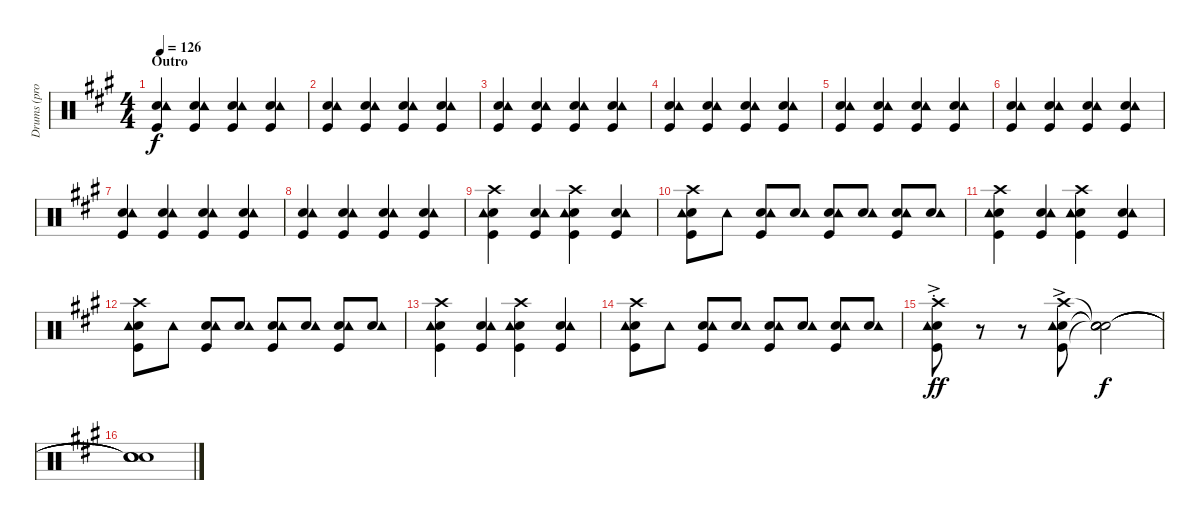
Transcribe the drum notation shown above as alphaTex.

\track ("Drums (prov.)" "Drums (pro") {instrument percussion}
\staff {score}
\articulation defaults
\ts (4 4)
\section ("" "Outro")
\tempo 126
\clef neutral
\ks a
("Snare (hit) 2" "Tambourine (hit)" "Kick (hit)").4{dy f} ("Snare (hit) 2" "Tambourine (hit)" "Kick (hit)").4 ("Snare (hit) 2" "Tambourine (hit)" "Kick (hit)").4 ("Snare (hit) 2" "Tambourine (hit)" "Kick (hit)").4 |
("Snare (hit) 2" "Tambourine (hit)" "Kick (hit)").4 ("Snare (hit) 2" "Tambourine (hit)" "Kick (hit)").4 ("Snare (hit) 2" "Tambourine (hit)" "Kick (hit)").4 ("Snare (hit) 2" "Tambourine (hit)" "Kick (hit)").4 |
("Snare (hit) 2" "Tambourine (hit)" "Kick (hit)").4 ("Snare (hit) 2" "Tambourine (hit)" "Kick (hit)").4 ("Snare (hit) 2" "Tambourine (hit)" "Kick (hit)").4 ("Snare (hit) 2" "Tambourine (hit)" "Kick (hit)").4 |
("Snare (hit) 2" "Tambourine (hit)" "Kick (hit)").4 ("Snare (hit) 2" "Tambourine (hit)" "Kick (hit)").4 ("Snare (hit) 2" "Tambourine (hit)" "Kick (hit)").4 ("Snare (hit) 2" "Tambourine (hit)" "Kick (hit)").4 |
("Snare (hit) 2" "Tambourine (hit)" "Kick (hit)").4 ("Snare (hit) 2" "Tambourine (hit)" "Kick (hit)").4 ("Snare (hit) 2" "Tambourine (hit)" "Kick (hit)").4 ("Snare (hit) 2" "Tambourine (hit)" "Kick (hit)").4 |
("Snare (hit) 2" "Tambourine (hit)" "Kick (hit)").4 ("Snare (hit) 2" "Tambourine (hit)" "Kick (hit)").4 ("Snare (hit) 2" "Tambourine (hit)" "Kick (hit)").4 ("Snare (hit) 2" "Tambourine (hit)" "Kick (hit)").4 |
("Snare (hit) 2" "Tambourine (hit)" "Kick (hit)").4 ("Snare (hit) 2" "Tambourine (hit)" "Kick (hit)").4 ("Snare (hit) 2" "Tambourine (hit)" "Kick (hit)").4 ("Snare (hit) 2" "Tambourine (hit)" "Kick (hit)").4 |
("Snare (hit) 2" "Tambourine (hit)" "Kick (hit)").4 ("Snare (hit) 2" "Tambourine (hit)" "Kick (hit)").4 ("Snare (hit) 2" "Tambourine (hit)" "Kick (hit)").4 ("Snare (hit) 2" "Tambourine (hit)" "Kick (hit)").4 |
("Crash high (hit)" "Snare (hit) 2" "Tambourine (hit)" "Kick (hit)").4 ("Snare (hit) 2" "Tambourine (hit)" "Kick (hit)").4 ("Crash high (hit)" "Snare (hit) 2" "Tambourine (hit)" "Kick (hit)").4 ("Snare (hit) 2" "Tambourine (hit)" "Kick (hit)").4 |
("Crash high (hit)" "Snare (hit) 2" "Tambourine (hit)" "Kick (hit)").8 "Tambourine (hit)".8 ("Snare (hit) 2" "Tambourine (hit)" "Kick (hit)").8 ("Snare (hit) 2" "Tambourine (hit)").8 ("Snare (hit) 2" "Tambourine (hit)" "Kick (hit)").8 ("Snare (hit) 2" "Tambourine (hit)").8 ("Snare (hit) 2" "Tambourine (hit)" "Kick (hit)").8 ("Snare (hit) 2" "Tambourine (hit)").8 |
("Crash high (hit)" "Snare (hit) 2" "Tambourine (hit)" "Kick (hit)").4 ("Snare (hit) 2" "Tambourine (hit)" "Kick (hit)").4 ("Crash high (hit)" "Snare (hit) 2" "Tambourine (hit)" "Kick (hit)").4 ("Snare (hit) 2" "Tambourine (hit)" "Kick (hit)").4 |
("Crash high (hit)" "Snare (hit) 2" "Tambourine (hit)" "Kick (hit)").8 "Tambourine (hit)".8 ("Snare (hit) 2" "Tambourine (hit)" "Kick (hit)").8 ("Snare (hit) 2" "Tambourine (hit)").8 ("Snare (hit) 2" "Tambourine (hit)" "Kick (hit)").8 ("Snare (hit) 2" "Tambourine (hit)").8 ("Snare (hit) 2" "Tambourine (hit)" "Kick (hit)").8 ("Snare (hit) 2" "Tambourine (hit)").8 |
("Crash high (hit)" "Snare (hit) 2" "Tambourine (hit)" "Kick (hit)").4 ("Snare (hit) 2" "Tambourine (hit)" "Kick (hit)").4 ("Crash high (hit)" "Snare (hit) 2" "Tambourine (hit)" "Kick (hit)").4 ("Snare (hit) 2" "Tambourine (hit)" "Kick (hit)").4 |
("Crash high (hit)" "Snare (hit) 2" "Tambourine (hit)" "Kick (hit)").8 "Tambourine (hit)".8 ("Snare (hit) 2" "Tambourine (hit)" "Kick (hit)").8 ("Snare (hit) 2" "Tambourine (hit)").8 ("Snare (hit) 2" "Tambourine (hit)" "Kick (hit)").8 ("Snare (hit) 2" "Tambourine (hit)").8 ("Snare (hit) 2" "Tambourine (hit)" "Kick (hit)").8 ("Snare (hit) 2" "Tambourine (hit)").8 |
("Crash high (hit)"{ac st} "Snare (hit) 2"{ac st} "Tambourine (hit)"{ac st} "Kick (hit)"{ac st}).8{dy ff} r.8 r.8 ("Crash high (hit)"{ac} "Snare (hit) 2"{ac} "Tambourine (hit)"{ac} "Kick (hit)"{ac}).8 ("Snare (hit)"{t} "Snare (hit)"{t} "Snare (hit)"{t} "Snare (hit)"{t}).2{dy f} |
("Snare (hit)"{t} "Snare (hit)"{t} "Snare (hit)"{t} "Snare (hit)"{t}).1
